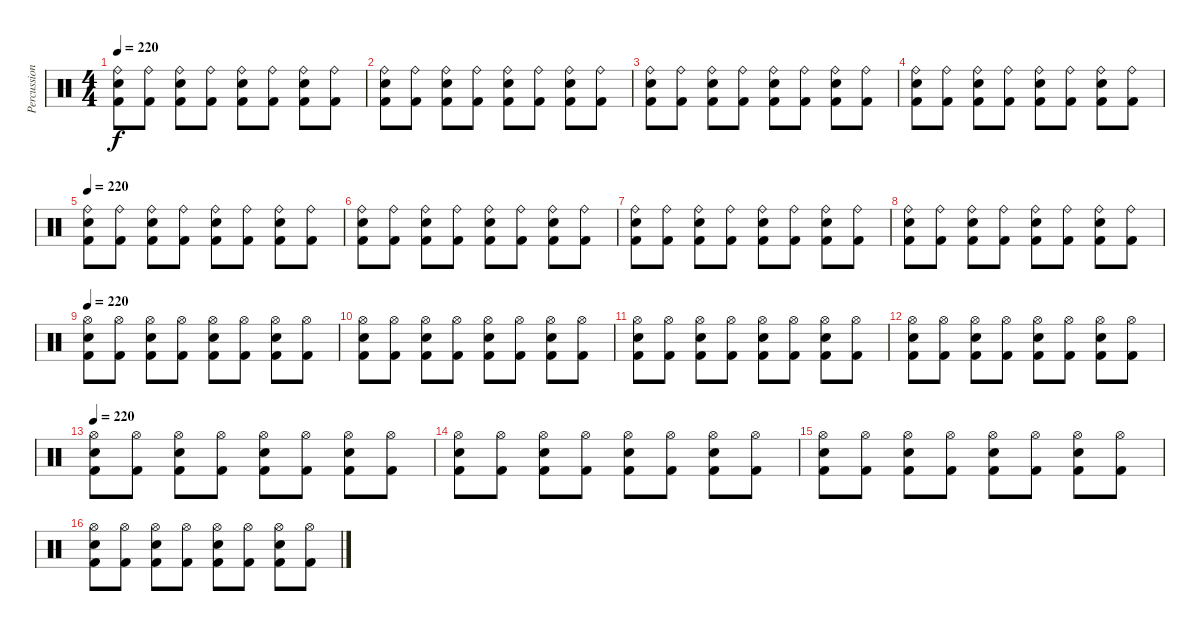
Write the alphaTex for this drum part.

\track ("Percussion" "Percussion") {instrument percussion}
\staff {score}
\articulation defaults
\ts (4 4)
\tempo 220
\clef neutral
\ks c
("Kick (hit) 2" "Snare (hit) 2" "Ride (bell)").8{dy f} ("Kick (hit) 2" "Ride (bell)").8 ("Kick (hit) 2" "Snare (hit) 2" "Ride (bell)").8 ("Kick (hit) 2" "Ride (bell)").8 ("Kick (hit) 2" "Snare (hit) 2" "Ride (bell)").8 ("Kick (hit) 2" "Ride (bell)").8 ("Kick (hit) 2" "Snare (hit) 2" "Ride (bell)").8 ("Kick (hit) 2" "Ride (bell)").8 |
("Kick (hit) 2" "Snare (hit) 2" "Ride (bell)").8 ("Kick (hit) 2" "Ride (bell)").8 ("Kick (hit) 2" "Snare (hit) 2" "Ride (bell)").8 ("Kick (hit) 2" "Ride (bell)").8 ("Kick (hit) 2" "Snare (hit) 2" "Ride (bell)").8 ("Kick (hit) 2" "Ride (bell)").8 ("Kick (hit) 2" "Snare (hit) 2" "Ride (bell)").8 ("Kick (hit) 2" "Ride (bell)").8 |
("Kick (hit) 2" "Snare (hit) 2" "Ride (bell)").8 ("Kick (hit) 2" "Ride (bell)").8 ("Kick (hit) 2" "Snare (hit) 2" "Ride (bell)").8 ("Kick (hit) 2" "Ride (bell)").8 ("Kick (hit) 2" "Snare (hit) 2" "Ride (bell)").8 ("Kick (hit) 2" "Ride (bell)").8 ("Kick (hit) 2" "Snare (hit) 2" "Ride (bell)").8 ("Kick (hit) 2" "Ride (bell)").8 |
("Kick (hit) 2" "Snare (hit) 2" "Ride (bell)").8 ("Kick (hit) 2" "Ride (bell)").8 ("Kick (hit) 2" "Snare (hit) 2" "Ride (bell)").8 ("Kick (hit) 2" "Ride (bell)").8 ("Kick (hit) 2" "Snare (hit) 2" "Ride (bell)").8 ("Kick (hit) 2" "Ride (bell)").8 ("Kick (hit) 2" "Snare (hit) 2" "Ride (bell)").8 ("Kick (hit) 2" "Ride (bell)").8 |
\tempo 220
("Kick (hit) 2" "Snare (hit) 2" "Ride (bell)").8 ("Kick (hit) 2" "Ride (bell)").8 ("Kick (hit) 2" "Snare (hit) 2" "Ride (bell)").8 ("Kick (hit) 2" "Ride (bell)").8 ("Kick (hit) 2" "Snare (hit) 2" "Ride (bell)").8 ("Kick (hit) 2" "Ride (bell)").8 ("Kick (hit) 2" "Snare (hit) 2" "Ride (bell)").8 ("Kick (hit) 2" "Ride (bell)").8 |
("Kick (hit) 2" "Snare (hit) 2" "Ride (bell)").8 ("Kick (hit) 2" "Ride (bell)").8 ("Kick (hit) 2" "Snare (hit) 2" "Ride (bell)").8 ("Kick (hit) 2" "Ride (bell)").8 ("Kick (hit) 2" "Snare (hit) 2" "Ride (bell)").8 ("Kick (hit) 2" "Ride (bell)").8 ("Kick (hit) 2" "Snare (hit) 2" "Ride (bell)").8 ("Kick (hit) 2" "Ride (bell)").8 |
("Kick (hit) 2" "Snare (hit) 2" "Ride (bell)").8 ("Kick (hit) 2" "Ride (bell)").8 ("Kick (hit) 2" "Snare (hit) 2" "Ride (bell)").8 ("Kick (hit) 2" "Ride (bell)").8 ("Kick (hit) 2" "Snare (hit) 2" "Ride (bell)").8 ("Kick (hit) 2" "Ride (bell)").8 ("Kick (hit) 2" "Snare (hit) 2" "Ride (bell)").8 ("Kick (hit) 2" "Ride (bell)").8 |
("Kick (hit) 2" "Snare (hit) 2" "Ride (bell)").8 ("Kick (hit) 2" "Ride (bell)").8 ("Kick (hit) 2" "Snare (hit) 2" "Ride (bell)").8 ("Kick (hit) 2" "Ride (bell)").8 ("Kick (hit) 2" "Snare (hit) 2" "Ride (bell)").8 ("Kick (hit) 2" "Ride (bell)").8 ("Kick (hit) 2" "Snare (hit) 2" "Ride (bell)").8 ("Kick (hit) 2" "Ride (bell)").8 |
\tempo 220
("Kick (hit) 2" "Snare (hit) 2" "Hi-Hat (open)").8 ("Kick (hit) 2" "Hi-Hat (open)").8 ("Kick (hit) 2" "Snare (hit) 2" "Hi-Hat (open)").8 ("Kick (hit) 2" "Hi-Hat (open)").8 ("Kick (hit) 2" "Snare (hit) 2" "Hi-Hat (open)").8 ("Kick (hit) 2" "Hi-Hat (open)").8 ("Kick (hit) 2" "Snare (hit) 2" "Hi-Hat (open)").8 ("Kick (hit) 2" "Hi-Hat (open)").8 |
("Kick (hit) 2" "Snare (hit) 2" "Hi-Hat (open)").8 ("Kick (hit) 2" "Hi-Hat (open)").8 ("Kick (hit) 2" "Snare (hit) 2" "Hi-Hat (open)").8 ("Kick (hit) 2" "Hi-Hat (open)").8 ("Kick (hit) 2" "Snare (hit) 2" "Hi-Hat (open)").8 ("Kick (hit) 2" "Hi-Hat (open)").8 ("Kick (hit) 2" "Snare (hit) 2" "Hi-Hat (open)").8 ("Kick (hit) 2" "Hi-Hat (open)").8 |
("Kick (hit) 2" "Snare (hit) 2" "Hi-Hat (open)").8 ("Kick (hit) 2" "Hi-Hat (open)").8 ("Kick (hit) 2" "Snare (hit) 2" "Hi-Hat (open)").8 ("Kick (hit) 2" "Hi-Hat (open)").8 ("Kick (hit) 2" "Snare (hit) 2" "Hi-Hat (open)").8 ("Kick (hit) 2" "Hi-Hat (open)").8 ("Kick (hit) 2" "Snare (hit) 2" "Hi-Hat (open)").8 ("Kick (hit) 2" "Hi-Hat (open)").8 |
("Kick (hit) 2" "Snare (hit) 2" "Hi-Hat (open)").8 ("Kick (hit) 2" "Hi-Hat (open)").8 ("Kick (hit) 2" "Snare (hit) 2" "Hi-Hat (open)").8 ("Kick (hit) 2" "Hi-Hat (open)").8 ("Kick (hit) 2" "Snare (hit) 2" "Hi-Hat (open)").8 ("Kick (hit) 2" "Hi-Hat (open)").8 ("Kick (hit) 2" "Snare (hit) 2" "Hi-Hat (open)").8 ("Kick (hit) 2" "Hi-Hat (open)").8 |
\tempo 220
("Kick (hit) 2" "Snare (hit) 2" "Hi-Hat (open)").8 ("Kick (hit) 2" "Hi-Hat (open)").8 ("Kick (hit) 2" "Snare (hit) 2" "Hi-Hat (open)").8 ("Kick (hit) 2" "Hi-Hat (open)").8 ("Kick (hit) 2" "Snare (hit) 2" "Hi-Hat (open)").8 ("Kick (hit) 2" "Hi-Hat (open)").8 ("Kick (hit) 2" "Snare (hit) 2" "Hi-Hat (open)").8 ("Kick (hit) 2" "Hi-Hat (open)").8 |
("Kick (hit) 2" "Snare (hit) 2" "Hi-Hat (open)").8 ("Kick (hit) 2" "Hi-Hat (open)").8 ("Kick (hit) 2" "Snare (hit) 2" "Hi-Hat (open)").8 ("Kick (hit) 2" "Hi-Hat (open)").8 ("Kick (hit) 2" "Snare (hit) 2" "Hi-Hat (open)").8 ("Kick (hit) 2" "Hi-Hat (open)").8 ("Kick (hit) 2" "Snare (hit) 2" "Hi-Hat (open)").8 ("Kick (hit) 2" "Hi-Hat (open)").8 |
("Kick (hit) 2" "Snare (hit) 2" "Hi-Hat (open)").8 ("Kick (hit) 2" "Hi-Hat (open)").8 ("Kick (hit) 2" "Snare (hit) 2" "Hi-Hat (open)").8 ("Kick (hit) 2" "Hi-Hat (open)").8 ("Kick (hit) 2" "Snare (hit) 2" "Hi-Hat (open)").8 ("Kick (hit) 2" "Hi-Hat (open)").8 ("Kick (hit) 2" "Snare (hit) 2" "Hi-Hat (open)").8 ("Kick (hit) 2" "Hi-Hat (open)").8 |
("Kick (hit) 2" "Snare (hit) 2" "Hi-Hat (open)").8 ("Kick (hit) 2" "Hi-Hat (open)").8 ("Kick (hit) 2" "Snare (hit) 2" "Hi-Hat (open)").8 ("Kick (hit) 2" "Hi-Hat (open)").8 ("Kick (hit) 2" "Snare (hit) 2" "Hi-Hat (open)").8 ("Kick (hit) 2" "Hi-Hat (open)").8 ("Kick (hit) 2" "Snare (hit) 2" "Hi-Hat (open)").8 ("Kick (hit) 2" "Hi-Hat (open)").8
